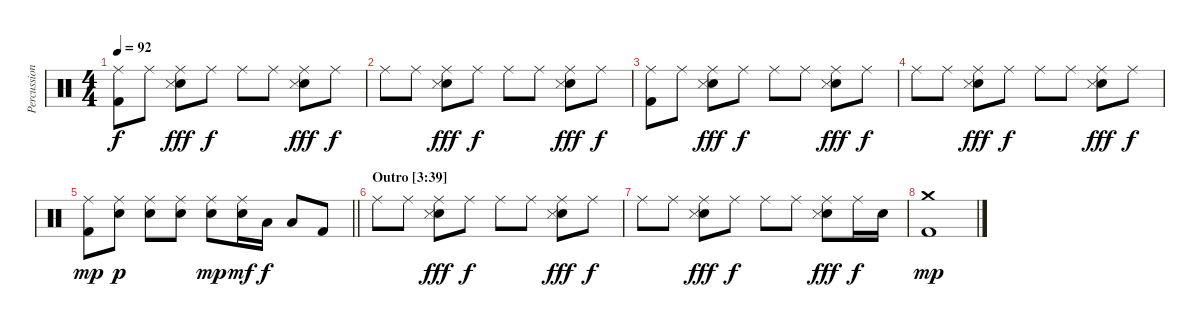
\track ("Percussion" "Percussion") {instrument percussion}
\staff {score}
\articulation defaults
\ts (4 4)
\tempo 92
\clef neutral
\ks c
("Ride (middle)" "Kick (hit) 2").8{dy f} "Ride (middle)".8 ("Ride (middle)" "Snare (hit) 2" "Snare (side stick) 3").8{dy fff} "Ride (middle)".8{dy f} "Ride (middle)".8 "Ride (middle)".8 ("Ride (middle)" "Snare (hit) 2" "Snare (side stick) 3").8{dy fff} "Ride (middle)".8{dy f} |
"Ride (middle)".8 "Ride (middle)".8 ("Ride (middle)" "Snare (hit) 2" "Snare (side stick) 3").8{dy fff} "Ride (middle)".8{dy f} "Ride (middle)".8 "Ride (middle)".8 ("Ride (middle)" "Snare (hit) 2" "Snare (side stick) 3").8{dy fff} "Ride (middle)".8{dy f} |
("Ride (middle)" "Kick (hit) 2").8 "Ride (middle)".8 ("Ride (middle)" "Snare (hit) 2" "Snare (side stick) 3").8{dy fff} "Ride (middle)".8{dy f} "Ride (middle)".8 "Ride (middle)".8 ("Ride (middle)" "Snare (hit) 2" "Snare (side stick) 3").8{dy fff} "Ride (middle)".8{dy f} |
"Ride (middle)".8 "Ride (middle)".8 ("Ride (middle)" "Snare (hit) 2" "Snare (side stick) 3").8{dy fff} "Ride (middle)".8{dy f} "Ride (middle)".8 "Ride (middle)".8 ("Ride (middle)" "Snare (hit) 2" "Snare (side stick) 3").8{dy fff} "Ride (middle)".8{dy f} |
\barLineRight lightlight
("Ride (middle)" "Kick (hit) 2").8{dy mp} ("Ride (middle)" "Snare (hit) 2").8{dy p} ("Ride (middle)" "Snare (hit) 2").8 ("Ride (middle)" "Snare (hit) 2").8 ("Ride (middle)" "Snare (hit) 2").8{dy mp} ("Ride (middle)" "Snare (hit) 2").16{dy mf} "Low Tom (hit)".16{dy f} "Low Tom (hit)".8 "Kick (hit) 2".8 |
\section ("" "Outro [3:39]")
"Ride (middle)".8 "Ride (middle)".8 ("Ride (middle)" "Snare (hit) 2" "Snare (side stick) 3").8{dy fff} "Ride (middle)".8{dy f} "Ride (middle)".8 "Ride (middle)".8 ("Ride (middle)" "Snare (hit) 2" "Snare (side stick) 3").8{dy fff} "Ride (middle)".8{dy f} |
"Ride (middle)".8 "Ride (middle)".8 ("Ride (middle)" "Snare (hit) 2" "Snare (side stick) 3").8{dy fff} "Ride (middle)".8{dy f} "Ride (middle)".8 "Ride (middle)".8 ("Ride (middle)" "Snare (hit) 2" "Snare (side stick) 3").8{dy fff} "Ride (middle)".16{dy f} "Snare (hit) 2".16 |
("Crash medium (hit)" "Kick (hit) 2").1{dy mp}
